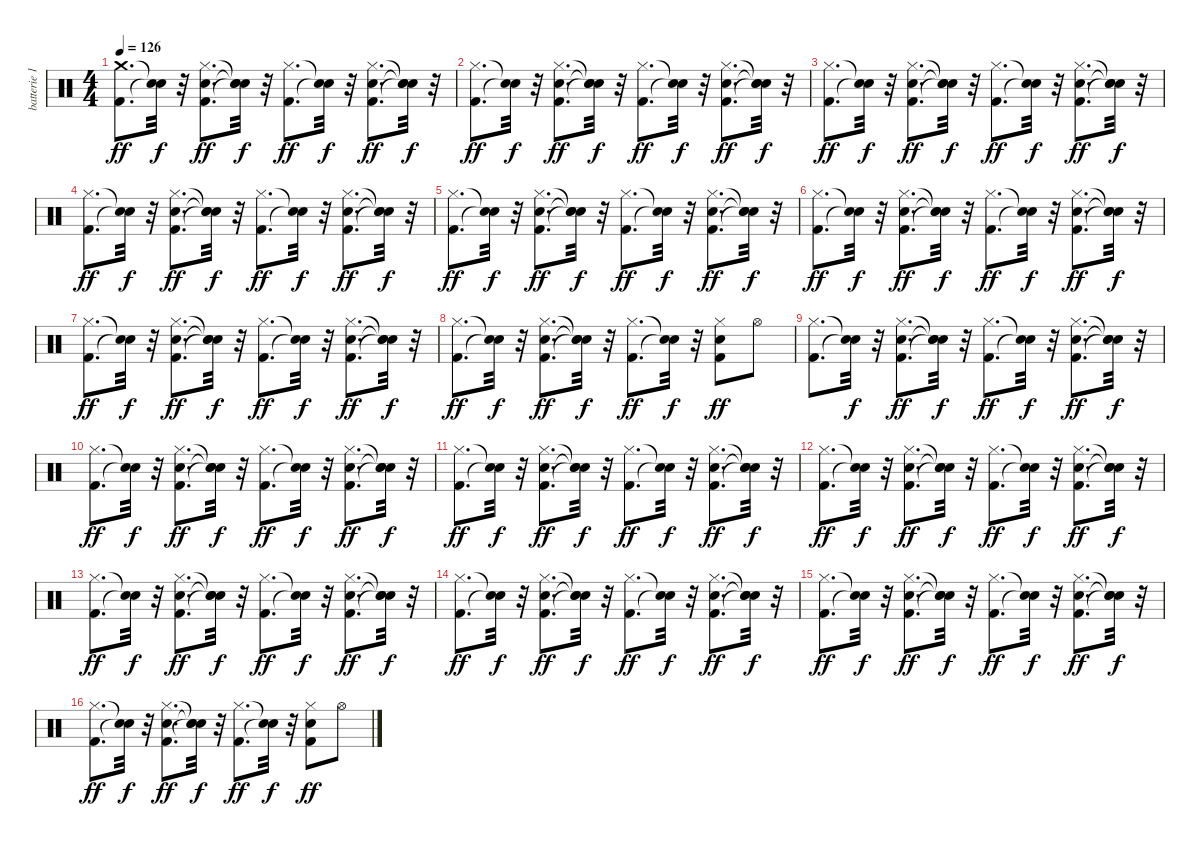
\track ("batterie 1" "batterie 1") {instrument percussion}
\staff {score}
\articulation defaults
\ts (4 4)
\tempo 126
\clef neutral
\ks c
("Kick (hit) 2" "Crash medium (hit)").8{d dy ff} ("Snare (hit)"{t} "Snare (hit)"{t}).32{dy f} r.32 ("Kick (hit) 2" "Snare (hit) 2" "Hi-Hat (closed)").8{d dy ff} ("Snare (hit)"{t} "Snare (hit)"{t} "Snare (hit)"{t}).32{dy f} r.32 ("Kick (hit) 2" "Hi-Hat (closed)").8{d dy ff} ("Snare (hit)"{t} "Snare (hit)"{t}).32{dy f} r.32 ("Kick (hit) 2" "Snare (hit) 2" "Hi-Hat (closed)").8{d dy ff} ("Snare (hit)"{t} "Snare (hit)"{t} "Snare (hit)"{t}).32{dy f} r.32 |
("Kick (hit) 2" "Hi-Hat (closed)").8{d dy ff} ("Snare (hit)"{t} "Snare (hit)"{t}).32{dy f} r.32 ("Kick (hit) 2" "Snare (hit) 2" "Hi-Hat (closed)").8{d dy ff} ("Snare (hit)"{t} "Snare (hit)"{t} "Snare (hit)"{t}).32{dy f} r.32 ("Kick (hit) 2" "Hi-Hat (closed)").8{d dy ff} ("Snare (hit)"{t} "Snare (hit)"{t}).32{dy f} r.32 ("Kick (hit) 2" "Snare (hit) 2" "Hi-Hat (closed)").8{d dy ff} ("Snare (hit)"{t} "Snare (hit)"{t} "Snare (hit)"{t}).32{dy f} r.32 |
("Kick (hit) 2" "Hi-Hat (closed)").8{d dy ff} ("Snare (hit)"{t} "Snare (hit)"{t}).32{dy f} r.32 ("Kick (hit) 2" "Snare (hit) 2" "Hi-Hat (closed)").8{d dy ff} ("Snare (hit)"{t} "Snare (hit)"{t} "Snare (hit)"{t}).32{dy f} r.32 ("Kick (hit) 2" "Hi-Hat (closed)").8{d dy ff} ("Snare (hit)"{t} "Snare (hit)"{t}).32{dy f} r.32 ("Kick (hit) 2" "Snare (hit) 2" "Hi-Hat (closed)").8{d dy ff} ("Snare (hit)"{t} "Snare (hit)"{t} "Snare (hit)"{t}).32{dy f} r.32 |
("Kick (hit) 2" "Hi-Hat (closed)").8{d dy ff} ("Snare (hit)"{t} "Snare (hit)"{t}).32{dy f} r.32 ("Kick (hit) 2" "Snare (hit) 2" "Hi-Hat (closed)").8{d dy ff} ("Snare (hit)"{t} "Snare (hit)"{t} "Snare (hit)"{t}).32{dy f} r.32 ("Kick (hit) 2" "Hi-Hat (closed)").8{d dy ff} ("Snare (hit)"{t} "Snare (hit)"{t}).32{dy f} r.32 ("Kick (hit) 2" "Snare (hit) 2" "Hi-Hat (closed)").8{d dy ff} ("Snare (hit)"{t} "Snare (hit)"{t} "Snare (hit)"{t}).32{dy f} r.32 |
("Kick (hit) 2" "Hi-Hat (closed)").8{d dy ff} ("Snare (hit)"{t} "Snare (hit)"{t}).32{dy f} r.32 ("Kick (hit) 2" "Snare (hit) 2" "Hi-Hat (closed)").8{d dy ff} ("Snare (hit)"{t} "Snare (hit)"{t} "Snare (hit)"{t}).32{dy f} r.32 ("Kick (hit) 2" "Hi-Hat (closed)").8{d dy ff} ("Snare (hit)"{t} "Snare (hit)"{t}).32{dy f} r.32 ("Kick (hit) 2" "Snare (hit) 2" "Hi-Hat (closed)").8{d dy ff} ("Snare (hit)"{t} "Snare (hit)"{t} "Snare (hit)"{t}).32{dy f} r.32 |
("Kick (hit) 2" "Hi-Hat (closed)").8{d dy ff} ("Snare (hit)"{t} "Snare (hit)"{t}).32{dy f} r.32 ("Kick (hit) 2" "Snare (hit) 2" "Hi-Hat (closed)").8{d dy ff} ("Snare (hit)"{t} "Snare (hit)"{t} "Snare (hit)"{t}).32{dy f} r.32 ("Kick (hit) 2" "Hi-Hat (closed)").8{d dy ff} ("Snare (hit)"{t} "Snare (hit)"{t}).32{dy f} r.32 ("Kick (hit) 2" "Snare (hit) 2" "Hi-Hat (closed)").8{d dy ff} ("Snare (hit)"{t} "Snare (hit)"{t} "Snare (hit)"{t}).32{dy f} r.32 |
("Kick (hit) 2" "Hi-Hat (closed)").8{d dy ff} ("Snare (hit)"{t} "Snare (hit)"{t}).32{dy f} r.32 ("Kick (hit) 2" "Snare (hit) 2" "Hi-Hat (closed)").8{d dy ff} ("Snare (hit)"{t} "Snare (hit)"{t} "Snare (hit)"{t}).32{dy f} r.32 ("Kick (hit) 2" "Hi-Hat (closed)").8{d dy ff} ("Snare (hit)"{t} "Snare (hit)"{t}).32{dy f} r.32 ("Kick (hit) 2" "Snare (hit) 2" "Hi-Hat (closed)").8{d dy ff} ("Snare (hit)"{t} "Snare (hit)"{t} "Snare (hit)"{t}).32{dy f} r.32 |
("Kick (hit) 2" "Hi-Hat (closed)").8{d dy ff} ("Snare (hit)"{t} "Snare (hit)"{t}).32{dy f} r.32 ("Kick (hit) 2" "Snare (hit) 2" "Hi-Hat (closed)").8{d dy ff} ("Snare (hit)"{t} "Snare (hit)"{t} "Snare (hit)"{t}).32{dy f} r.32 ("Kick (hit) 2" "Hi-Hat (closed)").8{d dy ff} ("Snare (hit)"{t} "Snare (hit)"{t}).32{dy f} r.32 ("Kick (hit) 2" "Snare (hit) 2" "Hi-Hat (closed)").8{dy ff} "Hi-Hat (open)".8 |
("Kick (hit) 2" "Hi-Hat (closed)").8{d} ("Snare (hit)"{t} "Snare (hit)"{t}).32{dy f} r.32 ("Kick (hit) 2" "Snare (hit) 2" "Hi-Hat (closed)").8{d dy ff} ("Snare (hit)"{t} "Snare (hit)"{t} "Snare (hit)"{t}).32{dy f} r.32 ("Kick (hit) 2" "Hi-Hat (closed)").8{d dy ff} ("Snare (hit)"{t} "Snare (hit)"{t}).32{dy f} r.32 ("Kick (hit) 2" "Snare (hit) 2" "Hi-Hat (closed)").8{d dy ff} ("Snare (hit)"{t} "Snare (hit)"{t} "Snare (hit)"{t}).32{dy f} r.32 |
("Kick (hit) 2" "Hi-Hat (closed)").8{d dy ff} ("Snare (hit)"{t} "Snare (hit)"{t}).32{dy f} r.32 ("Kick (hit) 2" "Snare (hit) 2" "Hi-Hat (closed)").8{d dy ff} ("Snare (hit)"{t} "Snare (hit)"{t} "Snare (hit)"{t}).32{dy f} r.32 ("Kick (hit) 2" "Hi-Hat (closed)").8{d dy ff} ("Snare (hit)"{t} "Snare (hit)"{t}).32{dy f} r.32 ("Kick (hit) 2" "Snare (hit) 2" "Hi-Hat (closed)").8{d dy ff} ("Snare (hit)"{t} "Snare (hit)"{t} "Snare (hit)"{t}).32{dy f} r.32 |
("Kick (hit) 2" "Hi-Hat (closed)").8{d dy ff} ("Snare (hit)"{t} "Snare (hit)"{t}).32{dy f} r.32 ("Kick (hit) 2" "Snare (hit) 2" "Hi-Hat (closed)").8{d dy ff} ("Snare (hit)"{t} "Snare (hit)"{t} "Snare (hit)"{t}).32{dy f} r.32 ("Kick (hit) 2" "Hi-Hat (closed)").8{d dy ff} ("Snare (hit)"{t} "Snare (hit)"{t}).32{dy f} r.32 ("Kick (hit) 2" "Snare (hit) 2" "Hi-Hat (closed)").8{d dy ff} ("Snare (hit)"{t} "Snare (hit)"{t} "Snare (hit)"{t}).32{dy f} r.32 |
("Kick (hit) 2" "Hi-Hat (closed)").8{d dy ff} ("Snare (hit)"{t} "Snare (hit)"{t}).32{dy f} r.32 ("Kick (hit) 2" "Snare (hit) 2" "Hi-Hat (closed)").8{d dy ff} ("Snare (hit)"{t} "Snare (hit)"{t} "Snare (hit)"{t}).32{dy f} r.32 ("Kick (hit) 2" "Hi-Hat (closed)").8{d dy ff} ("Snare (hit)"{t} "Snare (hit)"{t}).32{dy f} r.32 ("Kick (hit) 2" "Snare (hit) 2" "Hi-Hat (closed)").8{d dy ff} ("Snare (hit)"{t} "Snare (hit)"{t} "Snare (hit)"{t}).32{dy f} r.32 |
("Kick (hit) 2" "Hi-Hat (closed)").8{d dy ff} ("Snare (hit)"{t} "Snare (hit)"{t}).32{dy f} r.32 ("Kick (hit) 2" "Snare (hit) 2" "Hi-Hat (closed)").8{d dy ff} ("Snare (hit)"{t} "Snare (hit)"{t} "Snare (hit)"{t}).32{dy f} r.32 ("Kick (hit) 2" "Hi-Hat (closed)").8{d dy ff} ("Snare (hit)"{t} "Snare (hit)"{t}).32{dy f} r.32 ("Kick (hit) 2" "Snare (hit) 2" "Hi-Hat (closed)").8{d dy ff} ("Snare (hit)"{t} "Snare (hit)"{t} "Snare (hit)"{t}).32{dy f} r.32 |
("Kick (hit) 2" "Hi-Hat (closed)").8{d dy ff} ("Snare (hit)"{t} "Snare (hit)"{t}).32{dy f} r.32 ("Kick (hit) 2" "Snare (hit) 2" "Hi-Hat (closed)").8{d dy ff} ("Snare (hit)"{t} "Snare (hit)"{t} "Snare (hit)"{t}).32{dy f} r.32 ("Kick (hit) 2" "Hi-Hat (closed)").8{d dy ff} ("Snare (hit)"{t} "Snare (hit)"{t}).32{dy f} r.32 ("Kick (hit) 2" "Snare (hit) 2" "Hi-Hat (closed)").8{d dy ff} ("Snare (hit)"{t} "Snare (hit)"{t} "Snare (hit)"{t}).32{dy f} r.32 |
("Kick (hit) 2" "Hi-Hat (closed)").8{d dy ff} ("Snare (hit)"{t} "Snare (hit)"{t}).32{dy f} r.32 ("Kick (hit) 2" "Snare (hit) 2" "Hi-Hat (closed)").8{d dy ff} ("Snare (hit)"{t} "Snare (hit)"{t} "Snare (hit)"{t}).32{dy f} r.32 ("Kick (hit) 2" "Hi-Hat (closed)").8{d dy ff} ("Snare (hit)"{t} "Snare (hit)"{t}).32{dy f} r.32 ("Kick (hit) 2" "Snare (hit) 2" "Hi-Hat (closed)").8{d dy ff} ("Snare (hit)"{t} "Snare (hit)"{t} "Snare (hit)"{t}).32{dy f} r.32 |
("Kick (hit) 2" "Hi-Hat (closed)").8{d dy ff} ("Snare (hit)"{t} "Snare (hit)"{t}).32{dy f} r.32 ("Kick (hit) 2" "Snare (hit) 2" "Hi-Hat (closed)").8{d dy ff} ("Snare (hit)"{t} "Snare (hit)"{t} "Snare (hit)"{t}).32{dy f} r.32 ("Kick (hit) 2" "Hi-Hat (closed)").8{d dy ff} ("Snare (hit)"{t} "Snare (hit)"{t}).32{dy f} r.32 ("Kick (hit) 2" "Snare (hit) 2" "Hi-Hat (closed)").8{dy ff} "Hi-Hat (open)".8
